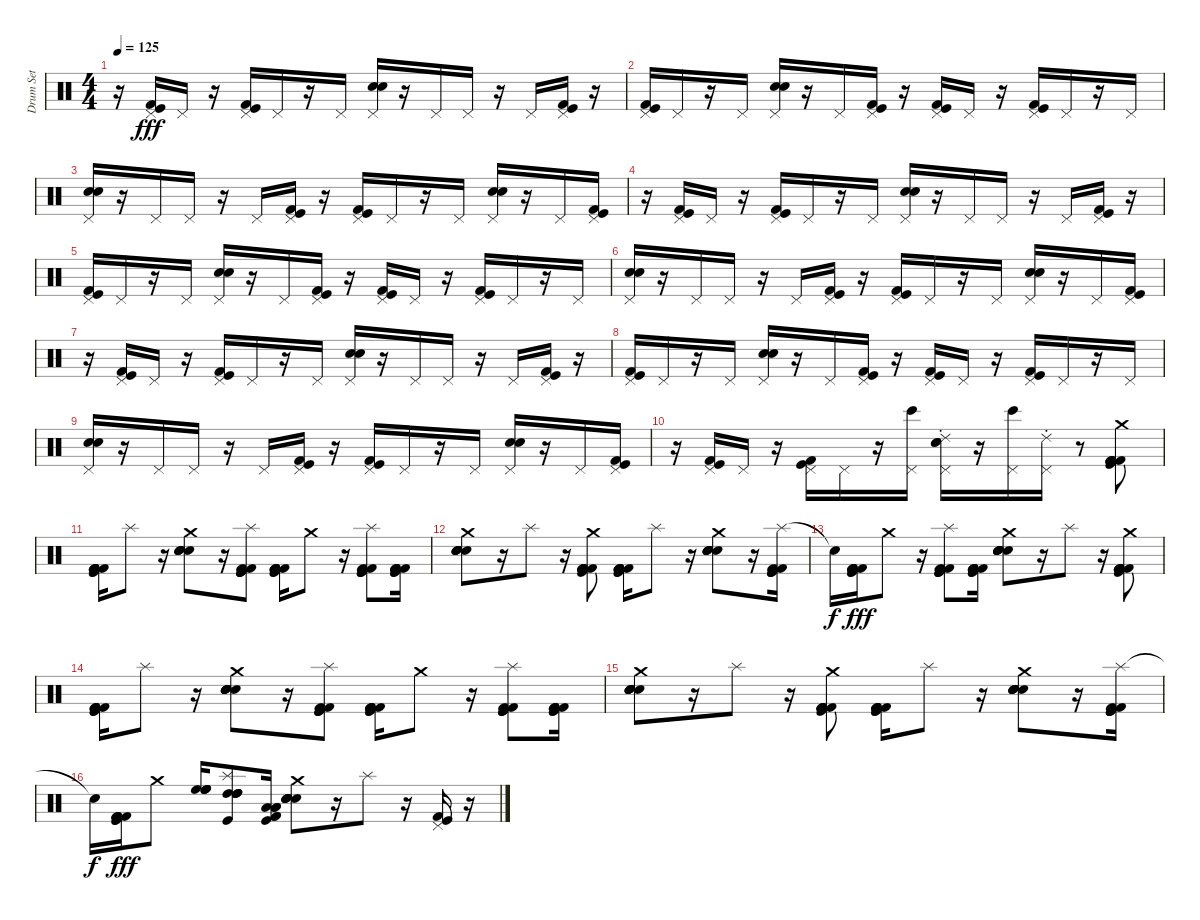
\track ("Drum Set" "Drum Set") {instrument percussion}
\staff {score}
\articulation defaults
\ts (4 4)
\tempo 125
\clef neutral
\ks c
r.16{dy fff} ("Kick (hit) 2" "Kick (hit)" "Pedal Hi-Hat (hit)").16 "Pedal Hi-Hat (hit)".16 r.16 ("Kick (hit)" "Kick (hit) 2" "Pedal Hi-Hat (hit)").16 "Pedal Hi-Hat (hit)".16 r.16 "Pedal Hi-Hat (hit)".16 ("Snare (hit) 2" "Electric Snare (hit)" "Pedal Hi-Hat (hit)").16 r.16 "Pedal Hi-Hat (hit)".16 "Pedal Hi-Hat (hit)".16 r.16 "Pedal Hi-Hat (hit)".16 ("Pedal Hi-Hat (hit)" "Kick (hit) 2" "Kick (hit)").16 r.16 |
("Kick (hit)" "Kick (hit) 2" "Pedal Hi-Hat (hit)").16 "Pedal Hi-Hat (hit)".16 r.16 "Pedal Hi-Hat (hit)".16 ("Electric Snare (hit)" "Snare (hit) 2" "Pedal Hi-Hat (hit)").16 r.16 "Pedal Hi-Hat (hit)".16 ("Kick (hit)" "Kick (hit) 2" "Pedal Hi-Hat (hit)").16 r.16 ("Kick (hit) 2" "Kick (hit)" "Pedal Hi-Hat (hit)").16 "Pedal Hi-Hat (hit)".16 r.16 ("Kick (hit)" "Kick (hit) 2" "Pedal Hi-Hat (hit)").16 "Pedal Hi-Hat (hit)".16 r.16 "Pedal Hi-Hat (hit)".16 |
("Snare (hit) 2" "Electric Snare (hit)" "Pedal Hi-Hat (hit)").16 r.16 "Pedal Hi-Hat (hit)".16 "Pedal Hi-Hat (hit)".16 r.16 "Pedal Hi-Hat (hit)".16 ("Pedal Hi-Hat (hit)" "Kick (hit) 2" "Kick (hit)").16 r.16 ("Kick (hit)" "Kick (hit) 2" "Pedal Hi-Hat (hit)").16 "Pedal Hi-Hat (hit)".16 r.16 "Pedal Hi-Hat (hit)".16 ("Electric Snare (hit)" "Snare (hit) 2" "Pedal Hi-Hat (hit)").16 r.16 "Pedal Hi-Hat (hit)".16 ("Kick (hit)" "Kick (hit) 2" "Pedal Hi-Hat (hit)").16 |
r.16 ("Kick (hit) 2" "Kick (hit)" "Pedal Hi-Hat (hit)").16 "Pedal Hi-Hat (hit)".16 r.16 ("Kick (hit)" "Kick (hit) 2" "Pedal Hi-Hat (hit)").16 "Pedal Hi-Hat (hit)".16 r.16 "Pedal Hi-Hat (hit)".16 ("Snare (hit) 2" "Electric Snare (hit)" "Pedal Hi-Hat (hit)").16 r.16 "Pedal Hi-Hat (hit)".16 "Pedal Hi-Hat (hit)".16 r.16 "Pedal Hi-Hat (hit)".16 ("Pedal Hi-Hat (hit)" "Kick (hit) 2" "Kick (hit)").16 r.16 |
("Kick (hit)" "Kick (hit) 2" "Pedal Hi-Hat (hit)").16 "Pedal Hi-Hat (hit)".16 r.16 "Pedal Hi-Hat (hit)".16 ("Electric Snare (hit)" "Snare (hit) 2" "Pedal Hi-Hat (hit)").16 r.16 "Pedal Hi-Hat (hit)".16 ("Kick (hit)" "Kick (hit) 2" "Pedal Hi-Hat (hit)").16 r.16 ("Kick (hit) 2" "Kick (hit)" "Pedal Hi-Hat (hit)").16 "Pedal Hi-Hat (hit)".16 r.16 ("Kick (hit)" "Kick (hit) 2" "Pedal Hi-Hat (hit)").16 "Pedal Hi-Hat (hit)".16 r.16 "Pedal Hi-Hat (hit)".16 |
("Snare (hit) 2" "Electric Snare (hit)" "Pedal Hi-Hat (hit)").16 r.16 "Pedal Hi-Hat (hit)".16 "Pedal Hi-Hat (hit)".16 r.16 "Pedal Hi-Hat (hit)".16 ("Pedal Hi-Hat (hit)" "Kick (hit) 2" "Kick (hit)").16 r.16 ("Kick (hit)" "Kick (hit) 2" "Pedal Hi-Hat (hit)").16 "Pedal Hi-Hat (hit)".16 r.16 "Pedal Hi-Hat (hit)".16 ("Electric Snare (hit)" "Snare (hit) 2" "Pedal Hi-Hat (hit)").16 r.16 "Pedal Hi-Hat (hit)".16 ("Kick (hit)" "Kick (hit) 2" "Pedal Hi-Hat (hit)").16 |
r.16 ("Kick (hit) 2" "Kick (hit)" "Pedal Hi-Hat (hit)").16 "Pedal Hi-Hat (hit)".16 r.16 ("Kick (hit)" "Kick (hit) 2" "Pedal Hi-Hat (hit)").16 "Pedal Hi-Hat (hit)".16 r.16 "Pedal Hi-Hat (hit)".16 ("Snare (hit) 2" "Electric Snare (hit)" "Pedal Hi-Hat (hit)").16 r.16 "Pedal Hi-Hat (hit)".16 "Pedal Hi-Hat (hit)".16 r.16 "Pedal Hi-Hat (hit)".16 ("Pedal Hi-Hat (hit)" "Kick (hit) 2" "Kick (hit)").16 r.16 |
("Kick (hit)" "Kick (hit) 2" "Pedal Hi-Hat (hit)").16 "Pedal Hi-Hat (hit)".16 r.16 "Pedal Hi-Hat (hit)".16 ("Electric Snare (hit)" "Snare (hit) 2" "Pedal Hi-Hat (hit)").16 r.16 "Pedal Hi-Hat (hit)".16 ("Kick (hit)" "Kick (hit) 2" "Pedal Hi-Hat (hit)").16 r.16 ("Kick (hit) 2" "Kick (hit)" "Pedal Hi-Hat (hit)").16 "Pedal Hi-Hat (hit)".16 r.16 ("Kick (hit)" "Kick (hit) 2" "Pedal Hi-Hat (hit)").16 "Pedal Hi-Hat (hit)".16 r.16 "Pedal Hi-Hat (hit)".16 |
("Snare (hit) 2" "Electric Snare (hit)" "Pedal Hi-Hat (hit)").16 r.16 "Pedal Hi-Hat (hit)".16 "Pedal Hi-Hat (hit)".16 r.16 "Pedal Hi-Hat (hit)".16 ("Pedal Hi-Hat (hit)" "Kick (hit) 2" "Kick (hit)").16 r.16 ("Kick (hit)" "Kick (hit) 2" "Pedal Hi-Hat (hit)").16 "Pedal Hi-Hat (hit)".16 r.16 "Pedal Hi-Hat (hit)".16 ("Electric Snare (hit)" "Snare (hit) 2" "Pedal Hi-Hat (hit)").16 r.16 "Pedal Hi-Hat (hit)".16 ("Kick (hit)" "Kick (hit) 2" "Pedal Hi-Hat (hit)").16 |
r.16 ("Kick (hit) 2" "Kick (hit)" "Pedal Hi-Hat (hit)").16 "Pedal Hi-Hat (hit)".16 r.16 ("Kick (hit)" "Kick (hit) 2" "Pedal Hi-Hat (hit)").16 "Pedal Hi-Hat (hit)".16 r.16 ("Bongo High (hit)" "Pedal Hi-Hat (hit)").16 ("Ride (choke) 2" "Snare (hit) 2" "Electric Snare (hit)" "Pedal Hi-Hat (hit)").16 r.16 ("Bongo High (hit)" "Pedal Hi-Hat (hit)").16 ("Ride (choke) 2" "Pedal Hi-Hat (hit)").16 r.8 ("Crash medium (hit)" "Kick (hit) 2" "Kick (hit)" "Kick (hit) 2" "Kick (hit) 2" "Kick (hit) 2").8 |
("Kick (hit) 2" "Kick (hit)" "Kick (hit) 2" "Kick (hit) 2" "Kick (hit) 2" "Kick (hit)").16 "Splash (hit)".8 r.16 ("Crash medium (hit)" "Snare (hit) 2" "Electric Snare (hit)" "Electric Snare (hit)" "Electric Snare (hit)" "Electric Snare (hit)").8 r.16 ("Splash (hit)" "Kick (hit)" "Kick (hit)" "Kick (hit)" "Kick (hit) 2" "Kick (hit) 2").8 ("Kick (hit)" "Kick (hit) 2" "Kick (hit) 2" "Kick (hit) 2" "Kick (hit) 2" "Kick (hit)").16 "Crash medium (hit)".8 r.16 ("Splash (hit)" "Kick (hit)" "Kick (hit)" "Kick (hit)" "Kick (hit) 2" "Kick (hit) 2").8 ("Kick (hit)" "Kick (hit) 2" "Kick (hit) 2" "Kick (hit) 2" "Kick (hit) 2" "Kick (hit)").16 |
("Crash medium (hit)" "Electric Snare (hit)" "Electric Snare (hit)" "Snare (hit) 2" "Snare (hit) 2" "Snare (hit) 2").8 r.16 "Splash (hit)".8 r.16 ("Crash medium (hit)" "Kick (hit) 2" "Kick (hit)" "Kick (hit) 2" "Kick (hit) 2" "Kick (hit) 2").8 ("Kick (hit) 2" "Kick (hit)" "Kick (hit) 2" "Kick (hit) 2" "Kick (hit) 2" "Kick (hit)").16 "Splash (hit)".8 r.16 ("Crash medium (hit)" "Snare (hit) 2" "Electric Snare (hit)" "Electric Snare (hit)" "Electric Snare (hit)" "Electric Snare (hit)").8 r.16 ("Splash (hit)" "Kick (hit)" "Kick (hit)" "Kick (hit)" "Kick (hit) 2" "Kick (hit) 2").16 |
"Snare (hit)"{t}.16{dy f} ("Kick (hit)" "Kick (hit) 2" "Kick (hit) 2" "Kick (hit) 2" "Kick (hit) 2" "Kick (hit)").16{dy fff} "Crash medium (hit)".8 r.16 ("Splash (hit)" "Kick (hit)" "Kick (hit)" "Kick (hit)" "Kick (hit) 2" "Kick (hit) 2").8 ("Kick (hit)" "Kick (hit) 2" "Kick (hit) 2" "Kick (hit) 2" "Kick (hit) 2" "Kick (hit)").16 ("Crash medium (hit)" "Electric Snare (hit)" "Electric Snare (hit)" "Snare (hit) 2" "Snare (hit) 2" "Snare (hit) 2").8 r.16 "Splash (hit)".8 r.16 ("Crash medium (hit)" "Kick (hit) 2" "Kick (hit)" "Kick (hit) 2" "Kick (hit) 2" "Kick (hit) 2").8 |
("Kick (hit) 2" "Kick (hit)" "Kick (hit) 2" "Kick (hit) 2" "Kick (hit) 2" "Kick (hit)").16 "Splash (hit)".8 r.16 ("Crash medium (hit)" "Snare (hit) 2" "Electric Snare (hit)" "Electric Snare (hit)" "Electric Snare (hit)" "Electric Snare (hit)").8 r.16 ("Splash (hit)" "Kick (hit)" "Kick (hit)" "Kick (hit)" "Kick (hit) 2" "Kick (hit) 2").8 ("Kick (hit)" "Kick (hit) 2" "Kick (hit) 2" "Kick (hit) 2" "Kick (hit) 2" "Kick (hit)").16 "Crash medium (hit)".8 r.16 ("Splash (hit)" "Kick (hit)" "Kick (hit)" "Kick (hit)" "Kick (hit) 2" "Kick (hit) 2").8 ("Kick (hit)" "Kick (hit) 2" "Kick (hit) 2" "Kick (hit) 2" "Kick (hit) 2" "Kick (hit)").16 |
("Crash medium (hit)" "Electric Snare (hit)" "Electric Snare (hit)" "Snare (hit) 2" "Snare (hit) 2" "Snare (hit) 2").8 r.16 "Splash (hit)".8 r.16 ("Crash medium (hit)" "Kick (hit) 2" "Kick (hit)" "Kick (hit) 2" "Kick (hit) 2" "Kick (hit) 2").8 ("Kick (hit) 2" "Kick (hit)" "Kick (hit) 2" "Kick (hit) 2" "Kick (hit) 2" "Kick (hit)").16 "Splash (hit)".8 r.16 ("Crash medium (hit)" "Snare (hit) 2" "Electric Snare (hit)" "Electric Snare (hit)" "Electric Snare (hit)" "Electric Snare (hit)").8 r.16 ("Splash (hit)" "Kick (hit)" "Kick (hit)" "Kick (hit)" "Kick (hit) 2" "Kick (hit) 2").16 |
"Snare (hit)"{t}.16{dy f} ("Kick (hit)" "Kick (hit) 2" "Kick (hit) 2" "Kick (hit) 2" "Kick (hit) 2" "Kick (hit)").16{dy fff} "Crash medium (hit)".8 ("High Floor Tom (hit)" "High Floor Tom (hit)" "High Floor Tom (hit)" "High Floor Tom (hit)").16 ("Splash (hit)" "High Tom (hit)" "High Tom (hit)" "High Tom (hit)" "High Tom (hit)" "Kick (hit)").8 ("Low Tom (hit)" "Low Tom (hit)" "Low Tom (hit)" "Kick (hit)" "Kick (hit) 2" "Kick (hit) 2").16 ("Crash medium (hit)" "Electric Snare (hit)" "Electric Snare (hit)" "Snare (hit) 2" "Snare (hit) 2" "Snare (hit) 2").8 r.16 "Splash (hit)".8 r.16 ("Pedal Hi-Hat (hit)" "Kick (hit) 2" "Kick (hit)").16 r.16
